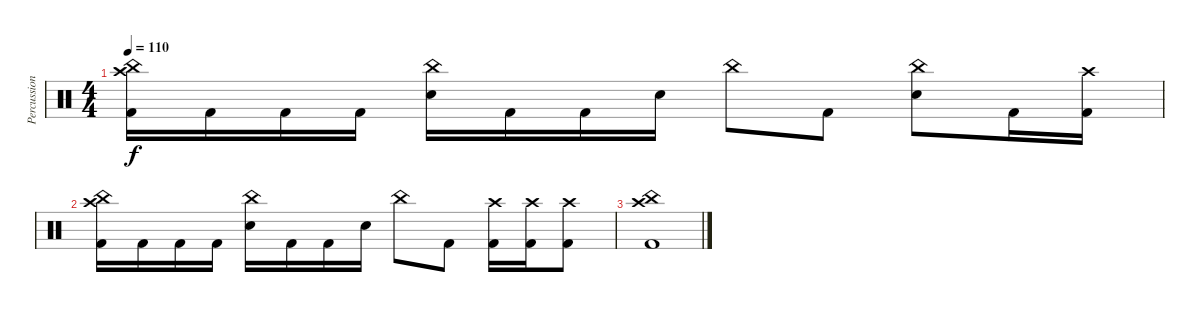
\track ("Percussion" "Percussion") {instrument percussion}
\staff {score}
\articulation defaults
\ts (4 4)
\tempo 110
\clef neutral
\ks c
("Crash high (hit)" "China (hit)" "Kick (hit) 2").16{dy f} "Kick (hit) 2".16 "Kick (hit) 2".16 "Kick (hit) 2".16 ("China (hit)" "Snare (hit) 2").16 "Kick (hit) 2".16 "Kick (hit) 2".16 "Snare (hit) 2".16 "China (hit)".8 "Kick (hit) 2".8 ("China (hit)" "Snare (hit) 2").8 "Kick (hit) 2".16 ("Crash high (hit)" "Kick (hit) 2").16 |
("Crash high (hit)" "China (hit)" "Kick (hit) 2").16 "Kick (hit) 2".16 "Kick (hit) 2".16 "Kick (hit) 2".16 ("China (hit)" "Snare (hit) 2").16 "Kick (hit) 2".16 "Kick (hit) 2".16 "Snare (hit) 2".16 "China (hit)".8 "Kick (hit) 2".8 ("Crash high (hit)" "Kick (hit) 2").16 ("Crash high (hit)" "Kick (hit) 2").16 ("Crash high (hit)" "Kick (hit) 2").8 |
("Crash high (hit)" "China (hit)" "Kick (hit) 2").1
